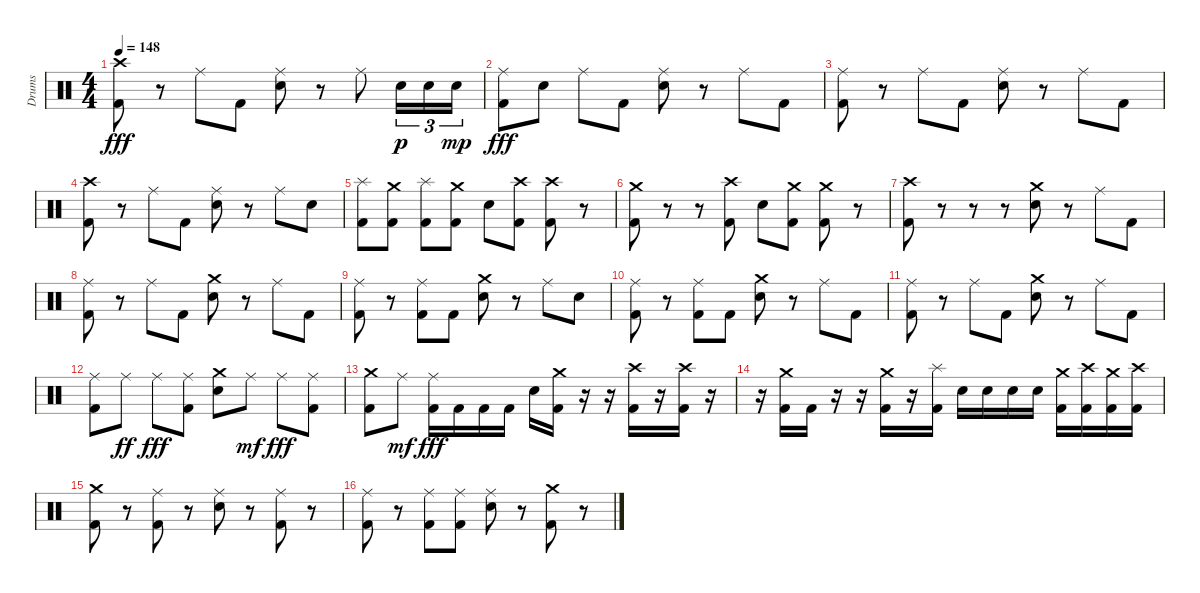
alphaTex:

\track ("Drums" "Drums") {instrument percussion}
\staff {score}
\articulation defaults
\ts (4 4)
\tempo 148
\clef neutral
\ks c
("Crash high (hit)" "Kick (hit) 2").8{dy fff} r.8 "Ride (middle)".8 "Kick (hit) 2".8 ("Ride (middle)" "Electric Snare (hit)").8 r.8 "Ride (middle)".8 "Electric Snare (hit)".16{tu (3 2) dy p} "Electric Snare (hit)".16{tu (3 2)} "Electric Snare (hit)".16{tu (3 2) dy mp} |
("Ride (middle)" "Kick (hit) 2").8{dy fff} "Electric Snare (hit)".8 "Ride (middle)".8 "Kick (hit) 2".8 ("Ride (middle)" "Electric Snare (hit)").8 r.8 "Ride (middle)".8 "Kick (hit) 2".8 |
("Ride (middle)" "Kick (hit) 2").8 r.8 "Ride (middle)".8 "Kick (hit) 2".8 ("Ride (middle)" "Electric Snare (hit)").8 r.8 "Ride (middle)".8 "Kick (hit) 2".8 |
("Crash high (hit)" "Kick (hit) 2").8 r.8 "Ride (middle)".8 "Kick (hit) 2".8 ("Ride (middle)" "Electric Snare (hit)").8 r.8 "Ride (middle)".8 "Electric Snare (hit)".8 |
("Splash (hit)" "Kick (hit) 2").8 ("Crash medium (hit)" "Kick (hit) 2").8 ("Splash (hit)" "Kick (hit) 2").8 ("Crash medium (hit)" "Kick (hit) 2").8 "Electric Snare (hit)".8 ("Crash high (hit)" "Kick (hit) 2").8 ("Crash high (hit)" "Kick (hit) 2").8 r.8 |
("Crash medium (hit)" "Kick (hit) 2").8 r.8 r.8 ("Crash high (hit)" "Kick (hit) 2").8 "Electric Snare (hit)".8 ("Crash medium (hit)" "Kick (hit) 2").8 ("Crash medium (hit)" "Kick (hit) 2").8 r.8 |
("Crash high (hit)" "Kick (hit) 2").8 r.8 r.8 r.8 ("Crash medium (hit)" "Electric Snare (hit)").8 r.8 "Ride (middle)".8 "Kick (hit) 2".8 |
("Ride (middle)" "Kick (hit) 2").8 r.8 "Ride (middle)".8 "Kick (hit) 2".8 ("Crash medium (hit)" "Electric Snare (hit)").8 r.8 "Ride (middle)".8 "Kick (hit) 2".8 |
("Ride (middle)" "Kick (hit) 2").8 r.8 ("Ride (middle)" "Kick (hit) 2").8 "Kick (hit) 2".8 ("Crash medium (hit)" "Electric Snare (hit)").8 r.8 "Ride (middle)".8 "Electric Snare (hit)".8 |
("Ride (middle)" "Kick (hit) 2").8 r.8 ("Ride (middle)" "Kick (hit) 2").8 "Kick (hit) 2".8 ("Crash medium (hit)" "Electric Snare (hit)").8 r.8 "Ride (middle)".8 "Kick (hit) 2".8 |
("Ride (middle)" "Kick (hit) 2").8 r.8 "Ride (middle)".8 "Kick (hit) 2".8 ("Crash medium (hit)" "Electric Snare (hit)").8 r.8 "Ride (middle)".8 "Kick (hit) 2".8 |
("Ride (middle)" "Kick (hit) 2").8 "Ride (middle)".8{dy ff} "Ride (middle)".8{dy fff} ("Ride (middle)" "Kick (hit) 2").8 ("Crash medium (hit)" "Electric Snare (hit)").8 "Ride (middle)".8{dy mf} "Ride (middle)".8{dy fff} ("Ride (middle)" "Kick (hit) 2").8 |
("Crash medium (hit)" "Kick (hit) 2").8 "Ride (middle)".8{dy mf} ("Ride (middle)" "Kick (hit) 2").16{dy fff} "Kick (hit) 2".16 "Kick (hit) 2".16 "Kick (hit) 2".16 "Electric Snare (hit)".16 ("Crash medium (hit)" "Kick (hit) 2").16 r.16 r.16 ("Crash high (hit)" "Kick (hit) 2").16 r.16 ("Crash high (hit)" "Kick (hit) 2").16 r.16 |
r.16 ("Crash medium (hit)" "Kick (hit) 2").16 "Kick (hit) 2".16 r.16 r.16 ("Crash medium (hit)" "Kick (hit) 2").16 r.16 ("Splash (hit)" "Kick (hit) 2").16 "Electric Snare (hit)".16 "Electric Snare (hit)".16 "Electric Snare (hit)".16 "Electric Snare (hit)".16 ("Crash medium (hit)" "Kick (hit) 2").16 ("Crash high (hit)" "Kick (hit) 2").16 ("Crash medium (hit)" "Kick (hit) 2").16 ("Crash high (hit)" "Kick (hit) 2").16 |
("Crash medium (hit)" "Kick (hit) 2").8 r.8 ("Ride (middle)" "Kick (hit) 2").8 r.8 ("Ride (middle)" "Electric Snare (hit)").8 r.8 ("Ride (middle)" "Kick (hit) 2").8 r.8 |
("Ride (middle)" "Kick (hit) 2").8 r.8 ("Ride (middle)" "Kick (hit) 2").8 ("Ride (middle)" "Kick (hit) 2").8 ("Ride (middle)" "Electric Snare (hit)").8 r.8 ("Crash medium (hit)" "Kick (hit) 2").8 r.8
